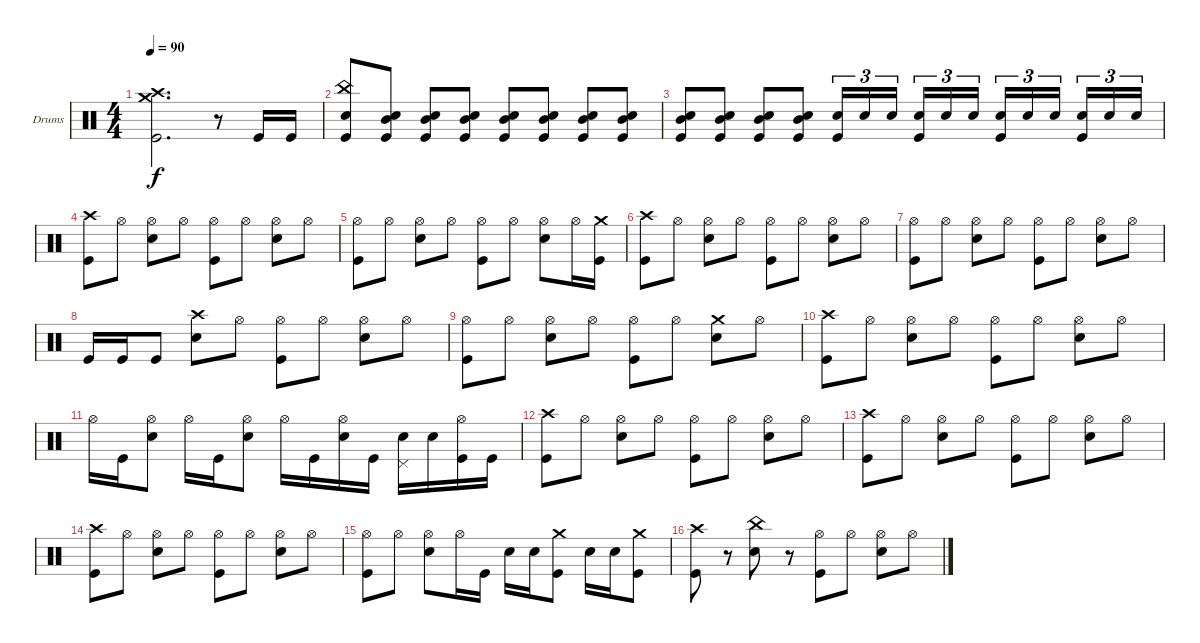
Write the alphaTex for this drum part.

\bracketExtendMode groupsimilarinstruments
\firstSystemTrackNameOrientation horizontal
\otherSystemsTrackNameOrientation horizontal
\track ("Drumkit" "Drums") {instrument percussion}
\staff {score}
\articulation defaults
\ts (4 4)
\tempo 90
\clef neutral
\ks c
("Crash high (hit)" "Crash medium (hit)" "Kick (hit)").2{d dy f} r.8 "Kick (hit)".16 "Kick (hit)".16 |
("China (hit)" "Snare (hit) 2" "Kick (hit)").8 ("Snare (hit) 2" "Mid Tom (hit)" "Kick (hit)").8 ("Snare (hit) 2" "Mid Tom (hit)" "Kick (hit)").8 ("Snare (hit) 2" "Mid Tom (hit)" "Kick (hit)").8 ("Snare (hit) 2" "Mid Tom (hit)" "Kick (hit)").8 ("Snare (hit) 2" "Mid Tom (hit)" "Kick (hit)").8 ("Snare (hit) 2" "Mid Tom (hit)" "Kick (hit)").8 ("Snare (hit) 2" "Mid Tom (hit)" "Kick (hit)").8 |
("Snare (hit) 2" "Mid Tom (hit)" "Kick (hit)").8 ("Snare (hit) 2" "Mid Tom (hit)" "Kick (hit)").8 ("Snare (hit) 2" "Mid Tom (hit)" "Kick (hit)").8 ("Snare (hit) 2" "Mid Tom (hit)" "Kick (hit)").8 ("Snare (hit) 2" "Kick (hit)").16{tu (3 2)} "Snare (hit) 2".16{tu (3 2)} "Snare (hit) 2".16{tu (3 2)} ("Snare (hit) 2" "Kick (hit)").16{tu (3 2)} "Snare (hit) 2".16{tu (3 2)} "Snare (hit) 2".16{tu (3 2)} ("Snare (hit) 2" "Kick (hit)").16{tu (3 2)} "Snare (hit) 2".16{tu (3 2)} "Snare (hit) 2".16{tu (3 2)} ("Snare (hit) 2" "Kick (hit)").16{tu (3 2)} "Snare (hit) 2".16{tu (3 2)} "Snare (hit) 2".16{tu (3 2)} |
("Crash high (hit)" "Kick (hit)").8 "Hi-Hat (open)".8 ("Hi-Hat (open)" "Snare (hit) 2").8 "Hi-Hat (open)".8 ("Hi-Hat (open)" "Kick (hit)").8 "Hi-Hat (open)".8 ("Hi-Hat (open)" "Snare (hit) 2").8 "Hi-Hat (open)".8 |
("Hi-Hat (open)" "Kick (hit)").8 "Hi-Hat (open)".8 ("Hi-Hat (open)" "Snare (hit) 2").8 "Hi-Hat (open)".8 ("Hi-Hat (open)" "Kick (hit)").8 "Hi-Hat (open)".8 ("Hi-Hat (open)" "Snare (hit) 2").8 "Hi-Hat (open)".16 ("Crash medium (hit)" "Kick (hit)").16 |
("Crash high (hit)" "Kick (hit)").8 "Hi-Hat (open)".8 ("Hi-Hat (open)" "Snare (hit) 2").8 "Hi-Hat (open)".8 ("Hi-Hat (open)" "Kick (hit)").8 "Hi-Hat (open)".8 ("Hi-Hat (open)" "Snare (hit) 2").8 "Hi-Hat (open)".8 |
("Hi-Hat (open)" "Kick (hit)").8 "Hi-Hat (open)".8 ("Hi-Hat (open)" "Snare (hit) 2").8 "Hi-Hat (open)".8 ("Hi-Hat (open)" "Kick (hit)").8 "Hi-Hat (open)".8 ("Hi-Hat (open)" "Snare (hit) 2").8 "Hi-Hat (open)".8 |
"Kick (hit)".16 "Kick (hit)".16 "Kick (hit)".8 ("Crash high (hit)" "Snare (hit) 2").8 "Hi-Hat (open)".8 ("Hi-Hat (open)" "Kick (hit)").8 "Hi-Hat (open)".8 ("Hi-Hat (open)" "Snare (hit) 2").8 "Hi-Hat (open)".8 |
("Hi-Hat (open)" "Kick (hit)").8 "Hi-Hat (open)".8 ("Hi-Hat (open)" "Snare (hit) 2").8 "Hi-Hat (open)".8 ("Hi-Hat (open)" "Kick (hit)").8 "Hi-Hat (open)".8 ("Crash medium (hit)" "Snare (hit) 2").8 "Hi-Hat (open)".8 |
("Crash high (hit)" "Kick (hit)").8 "Hi-Hat (open)".8 ("Hi-Hat (open)" "Snare (hit) 2").8 "Hi-Hat (open)".8 ("Hi-Hat (open)" "Kick (hit)").8 "Hi-Hat (open)".8 ("Hi-Hat (open)" "Snare (hit) 2").8 "Hi-Hat (open)".8 |
"Hi-Hat (open)".16 "Kick (hit)".16 ("Hi-Hat (open)" "Snare (hit) 2").8 "Hi-Hat (open)".16 "Kick (hit)".16 ("Hi-Hat (open)" "Snare (hit) 2").8 "Hi-Hat (open)".16 "Kick (hit)".16 ("Hi-Hat (open)" "Snare (hit) 2").16 "Kick (hit)".16 ("Snare (hit) 2" "Pedal Hi-Hat (hit)").16 "Snare (hit) 2".16 ("Hi-Hat (open)" "Kick (hit)").16 "Kick (hit)".16 |
("Crash high (hit)" "Kick (hit)").8 "Hi-Hat (open)".8 ("Hi-Hat (open)" "Snare (hit) 2").8 "Hi-Hat (open)".8 ("Hi-Hat (open)" "Kick (hit)").8 "Hi-Hat (open)".8 ("Hi-Hat (open)" "Snare (hit) 2").8 "Hi-Hat (open)".8 |
("Crash high (hit)" "Kick (hit)").8 "Hi-Hat (open)".8 ("Hi-Hat (open)" "Snare (hit) 2").8 "Hi-Hat (open)".8 ("Hi-Hat (open)" "Kick (hit)").8 "Hi-Hat (open)".8 ("Hi-Hat (open)" "Snare (hit) 2").8 "Hi-Hat (open)".8 |
("Crash high (hit)" "Kick (hit)").8 "Hi-Hat (open)".8 ("Hi-Hat (open)" "Snare (hit) 2").8 "Hi-Hat (open)".8 ("Hi-Hat (open)" "Kick (hit)").8 "Hi-Hat (open)".8 ("Hi-Hat (open)" "Snare (hit) 2").8 "Hi-Hat (open)".8 |
("Hi-Hat (open)" "Kick (hit)").8 "Hi-Hat (open)".8 ("Hi-Hat (open)" "Snare (hit) 2").8 "Hi-Hat (open)".16 "Kick (hit)".16 "Snare (hit) 2".16 "Snare (hit) 2".16 ("Crash medium (hit)" "Kick (hit)").8 "Snare (hit) 2".16 "Snare (hit) 2".16 ("Crash medium (hit)" "Kick (hit)").8 |
("Crash high (hit)" "Kick (hit)").8 r.8 ("China (hit)" "Snare (hit) 2").8 r.8 ("Hi-Hat (open)" "Kick (hit)").8 "Hi-Hat (open)".8 ("Hi-Hat (open)" "Snare (hit) 2").8 "Hi-Hat (open)".8
